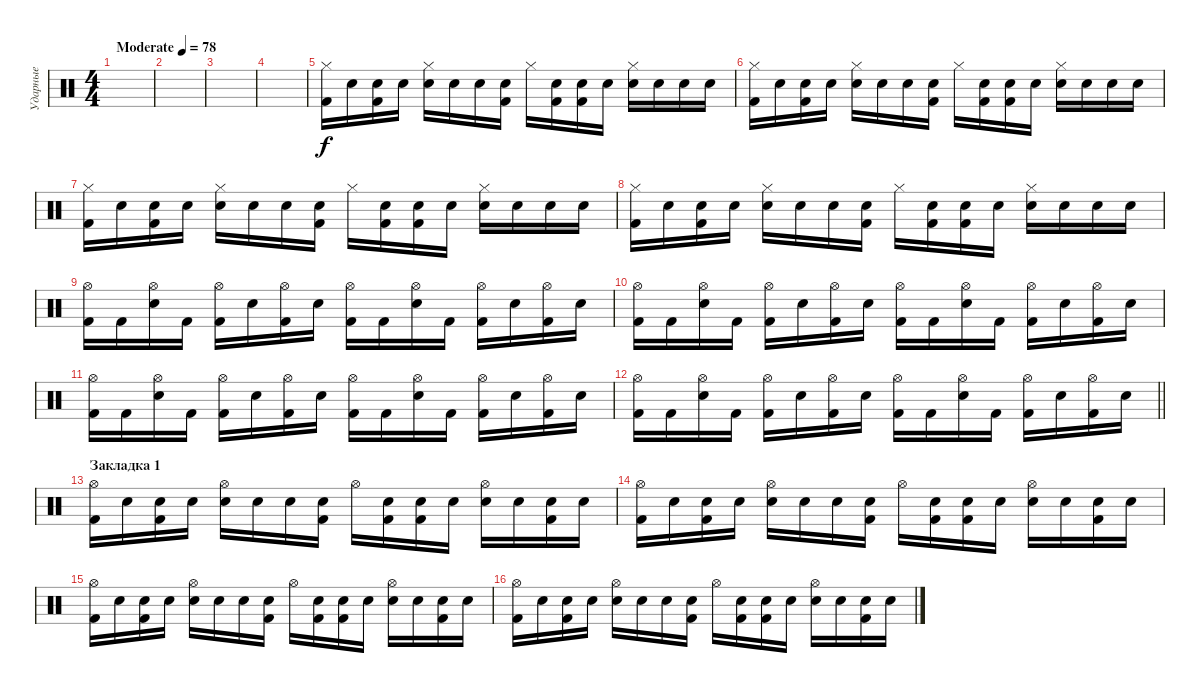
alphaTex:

\track ("Ударные" "Ударные") {instrument percussion}
\staff {score}
\articulation defaults
\ts (4 4)
\tempo (78 "Moderate")
\clef neutral
\ks c
|
|
|
|
("Hi-Hat (closed)" "Kick (hit) 2").16 "Snare (hit)".16 ("Snare (hit)" "Kick (hit) 2").16 "Snare (hit)".16 ("Hi-Hat (closed)" "Electric Snare (hit)").16 "Snare (hit)".16 "Snare (hit)".16 ("Snare (hit)" "Kick (hit) 2").16 "Hi-Hat (closed)".16 ("Snare (hit)" "Kick (hit) 2").16 ("Snare (hit)" "Kick (hit) 2").16 "Snare (hit)".16 ("Hi-Hat (closed)" "Electric Snare (hit)").16 "Snare (hit)".16 "Snare (hit)".16 "Snare (hit)".16 |
("Hi-Hat (closed)" "Kick (hit) 2").16 "Snare (hit)".16 ("Snare (hit)" "Kick (hit) 2").16 "Snare (hit)".16 ("Hi-Hat (closed)" "Electric Snare (hit)").16 "Snare (hit)".16 "Snare (hit)".16 ("Snare (hit)" "Kick (hit) 2").16 "Hi-Hat (closed)".16 ("Snare (hit)" "Kick (hit) 2").16 ("Snare (hit)" "Kick (hit) 2").16 "Snare (hit)".16 ("Hi-Hat (closed)" "Electric Snare (hit)").16 "Snare (hit)".16 "Snare (hit)".16 "Snare (hit)".16 |
("Hi-Hat (closed)" "Kick (hit) 2").16 "Snare (hit)".16 ("Snare (hit)" "Kick (hit) 2").16 "Snare (hit)".16 ("Hi-Hat (closed)" "Electric Snare (hit)").16 "Snare (hit)".16 "Snare (hit)".16 ("Snare (hit)" "Kick (hit) 2").16 "Hi-Hat (closed)".16 ("Snare (hit)" "Kick (hit) 2").16 ("Snare (hit)" "Kick (hit) 2").16 "Snare (hit)".16 ("Hi-Hat (closed)" "Electric Snare (hit)").16 "Snare (hit)".16 "Snare (hit)".16 "Snare (hit)".16 |
("Hi-Hat (closed)" "Kick (hit) 2").16 "Snare (hit)".16 ("Snare (hit)" "Kick (hit) 2").16 "Snare (hit)".16 ("Hi-Hat (closed)" "Electric Snare (hit)").16 "Snare (hit)".16 "Snare (hit)".16 ("Snare (hit)" "Kick (hit) 2").16 "Hi-Hat (closed)".16 ("Snare (hit)" "Kick (hit) 2").16 ("Snare (hit)" "Kick (hit) 2").16 "Snare (hit)".16 ("Hi-Hat (closed)" "Electric Snare (hit)").16 "Snare (hit)".16 "Snare (hit)".16 "Snare (hit)".16 |
("Hi-Hat (open)" "Kick (hit) 2").16 "Kick (hit) 2".16 ("Hi-Hat (open)" "Electric Snare (hit)").16 "Kick (hit) 2".16 ("Hi-Hat (open)" "Kick (hit) 2").16 "Electric Snare (hit)".16 ("Hi-Hat (open)" "Kick (hit) 2").16 "Electric Snare (hit)".16 ("Hi-Hat (open)" "Kick (hit) 2").16 "Kick (hit) 2".16 ("Hi-Hat (open)" "Electric Snare (hit)").16 "Kick (hit) 2".16 ("Hi-Hat (open)" "Kick (hit) 2").16 "Electric Snare (hit)".16 ("Hi-Hat (open)" "Kick (hit) 2").16 "Electric Snare (hit)".16 |
("Hi-Hat (open)" "Kick (hit) 2").16 "Kick (hit) 2".16 ("Hi-Hat (open)" "Electric Snare (hit)").16 "Kick (hit) 2".16 ("Hi-Hat (open)" "Kick (hit) 2").16 "Electric Snare (hit)".16 ("Hi-Hat (open)" "Kick (hit) 2").16 "Electric Snare (hit)".16 ("Hi-Hat (open)" "Kick (hit) 2").16 "Kick (hit) 2".16 ("Hi-Hat (open)" "Electric Snare (hit)").16 "Kick (hit) 2".16 ("Hi-Hat (open)" "Kick (hit) 2").16 "Electric Snare (hit)".16 ("Hi-Hat (open)" "Kick (hit) 2").16 "Electric Snare (hit)".16 |
("Hi-Hat (open)" "Kick (hit) 2").16 "Kick (hit) 2".16 ("Hi-Hat (open)" "Electric Snare (hit)").16 "Kick (hit) 2".16 ("Hi-Hat (open)" "Kick (hit) 2").16 "Electric Snare (hit)".16 ("Hi-Hat (open)" "Kick (hit) 2").16 "Electric Snare (hit)".16 ("Hi-Hat (open)" "Kick (hit) 2").16 "Kick (hit) 2".16 ("Hi-Hat (open)" "Electric Snare (hit)").16 "Kick (hit) 2".16 ("Hi-Hat (open)" "Kick (hit) 2").16 "Electric Snare (hit)".16 ("Hi-Hat (open)" "Kick (hit) 2").16 "Electric Snare (hit)".16 |
\barLineRight lightlight
("Hi-Hat (open)" "Kick (hit) 2").16 "Kick (hit) 2".16 ("Hi-Hat (open)" "Electric Snare (hit)").16 "Kick (hit) 2".16 ("Hi-Hat (open)" "Kick (hit) 2").16 "Electric Snare (hit)".16 ("Hi-Hat (open)" "Kick (hit) 2").16 "Electric Snare (hit)".16 ("Hi-Hat (open)" "Kick (hit) 2").16 "Kick (hit) 2".16 ("Hi-Hat (open)" "Electric Snare (hit)").16 "Kick (hit) 2".16 ("Hi-Hat (open)" "Kick (hit) 2").16 "Electric Snare (hit)".16 ("Hi-Hat (open)" "Kick (hit) 2").16 "Electric Snare (hit)".16 |
\section ("" "Закладка 1")
("Hi-Hat (open)" "Kick (hit) 2").16 "Snare (hit)".16 ("Snare (hit)" "Kick (hit) 2").16 "Snare (hit)".16 ("Hi-Hat (open)" "Electric Snare (hit)").16 "Snare (hit)".16 "Snare (hit)".16 ("Snare (hit)" "Kick (hit) 2").16 "Hi-Hat (open)".16 ("Snare (hit)" "Kick (hit) 2").16 ("Snare (hit)" "Kick (hit) 2").16 "Snare (hit)".16 ("Hi-Hat (open)" "Electric Snare (hit)").16 "Snare (hit)".16 ("Snare (hit)" "Kick (hit) 2").16 "Snare (hit)".16 |
("Hi-Hat (open)" "Kick (hit) 2").16 "Snare (hit)".16 ("Snare (hit)" "Kick (hit) 2").16 "Snare (hit)".16 ("Hi-Hat (open)" "Electric Snare (hit)").16 "Snare (hit)".16 "Snare (hit)".16 ("Snare (hit)" "Kick (hit) 2").16 "Hi-Hat (open)".16 ("Snare (hit)" "Kick (hit) 2").16 ("Snare (hit)" "Kick (hit) 2").16 "Snare (hit)".16 ("Hi-Hat (open)" "Electric Snare (hit)").16 "Snare (hit)".16 ("Snare (hit)" "Kick (hit) 2").16 "Snare (hit)".16 |
("Hi-Hat (open)" "Kick (hit) 2").16 "Snare (hit)".16 ("Snare (hit)" "Kick (hit) 2").16 "Snare (hit)".16 ("Hi-Hat (open)" "Electric Snare (hit)").16 "Snare (hit)".16 "Snare (hit)".16 ("Snare (hit)" "Kick (hit) 2").16 "Hi-Hat (open)".16 ("Snare (hit)" "Kick (hit) 2").16 ("Snare (hit)" "Kick (hit) 2").16 "Snare (hit)".16 ("Hi-Hat (open)" "Electric Snare (hit)").16 "Snare (hit)".16 ("Snare (hit)" "Kick (hit) 2").16 "Snare (hit)".16 |
("Hi-Hat (open)" "Kick (hit) 2").16 "Snare (hit)".16 ("Snare (hit)" "Kick (hit) 2").16 "Snare (hit)".16 ("Hi-Hat (open)" "Electric Snare (hit)").16 "Snare (hit)".16 "Snare (hit)".16 ("Snare (hit)" "Kick (hit) 2").16 "Hi-Hat (open)".16 ("Snare (hit)" "Kick (hit) 2").16 ("Snare (hit)" "Kick (hit) 2").16 "Snare (hit)".16 ("Hi-Hat (open)" "Electric Snare (hit)").16 "Snare (hit)".16 ("Snare (hit)" "Kick (hit) 2").16 "Snare (hit)".16
